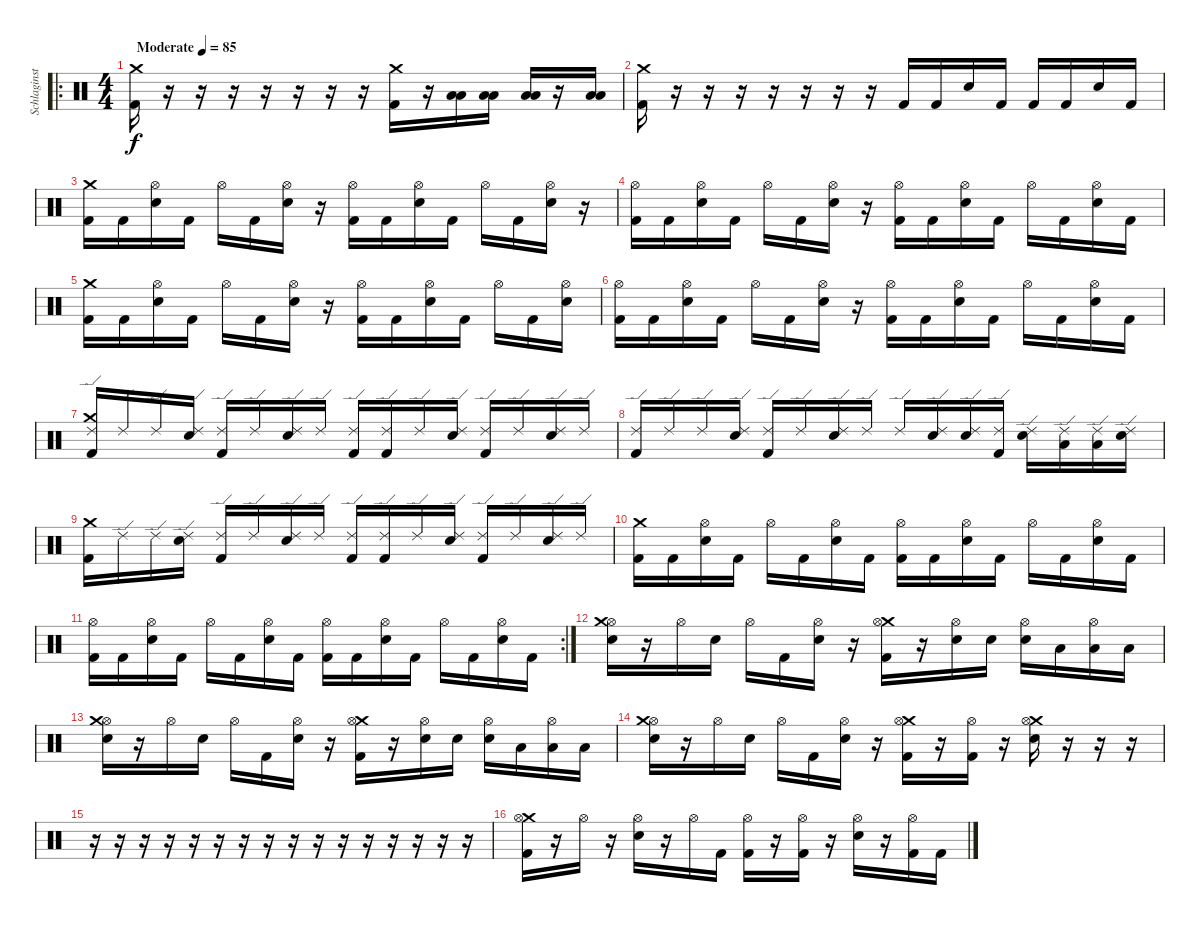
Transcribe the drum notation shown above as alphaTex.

\track ("Schlaginstrumente - Auswahl" "Schlaginst") {instrument percussion}
\staff {score}
\articulation defaults
\ro
\ts (4 4)
\tempo (85 "Moderate")
\clef neutral
\ks c
("Kick (hit) 2" "Crash medium (hit)").16{dy f} r.16 r.16 r.16 r.16 r.16 r.16 r.16 ("Kick (hit) 2" "Crash medium (hit)").16 r.16 ("Low Floor Tom (hit)" "Low Tom (hit)").16 ("Low Floor Tom (hit)" "Low Tom (hit)").16 ("Low Floor Tom (hit)" "Low Tom (hit)").16 r.16 ("Low Floor Tom (hit)" "Low Tom (hit)").16 |
("Kick (hit) 2" "Crash medium (hit)").16 r.16 r.16 r.16 r.16 r.16 r.16 r.16 "Kick (hit) 2".16 "Kick (hit) 2".16 "Snare (hit) 2".16 "Kick (hit) 2".16 "Kick (hit) 2".16 "Kick (hit) 2".16 "Snare (hit) 2".16 "Kick (hit) 2".16 |
("Kick (hit) 2" "Crash medium (hit)").16 "Kick (hit) 2".16 ("Snare (hit) 2" "Hi-Hat (open)").16 "Kick (hit) 2".16 "Hi-Hat (open)".16 "Kick (hit) 2".16 ("Snare (hit) 2" "Hi-Hat (open)").16 r.16 ("Kick (hit) 2" "Hi-Hat (open)").16 "Kick (hit) 2".16 ("Snare (hit) 2" "Hi-Hat (open)").16 "Kick (hit) 2".16 "Hi-Hat (open)".16 "Kick (hit) 2".16 ("Snare (hit) 2" "Hi-Hat (open)").16 r.16 |
("Kick (hit) 2" "Hi-Hat (open)").16 "Kick (hit) 2".16 ("Snare (hit) 2" "Hi-Hat (open)").16 "Kick (hit) 2".16 "Hi-Hat (open)".16 "Kick (hit) 2".16 ("Snare (hit) 2" "Hi-Hat (open)").16 r.16 ("Kick (hit) 2" "Hi-Hat (open)").16 "Kick (hit) 2".16 ("Snare (hit) 2" "Hi-Hat (open)").16 "Kick (hit) 2".16 "Hi-Hat (open)".16 "Kick (hit) 2".16 ("Snare (hit) 2" "Hi-Hat (open)").16 "Kick (hit) 2".16 |
("Kick (hit) 2" "Crash medium (hit)").16 "Kick (hit) 2".16 ("Snare (hit) 2" "Hi-Hat (open)").16 "Kick (hit) 2".16 "Hi-Hat (open)".16 "Kick (hit) 2".16 ("Snare (hit) 2" "Hi-Hat (open)").16 r.16 ("Kick (hit) 2" "Hi-Hat (open)").16 "Kick (hit) 2".16 ("Snare (hit) 2" "Hi-Hat (open)").16 "Kick (hit) 2".16 "Hi-Hat (open)".16 "Kick (hit) 2".16 ("Snare (hit) 2" "Hi-Hat (open)").16 |
("Kick (hit) 2" "Hi-Hat (open)").16 "Kick (hit) 2".16 ("Snare (hit) 2" "Hi-Hat (open)").16 "Kick (hit) 2".16 "Hi-Hat (open)".16 "Kick (hit) 2".16 ("Snare (hit) 2" "Hi-Hat (open)").16 r.16 ("Kick (hit) 2" "Hi-Hat (open)").16 "Kick (hit) 2".16 ("Snare (hit) 2" "Hi-Hat (open)").16 "Kick (hit) 2".16 "Hi-Hat (open)".16 "Kick (hit) 2".16 ("Snare (hit) 2" "Hi-Hat (open)").16 "Kick (hit) 2".16 |
("Kick (hit) 2" "Ride (edge) 2" "Crash medium (hit)").16 "Ride (edge) 2".16 "Ride (edge) 2".16 ("Snare (hit) 2" "Ride (edge) 2").16 ("Kick (hit) 2" "Ride (edge) 2").16 "Ride (edge) 2".16 ("Snare (hit) 2" "Ride (edge) 2").16 "Ride (edge) 2".16 ("Kick (hit) 2" "Ride (edge) 2").16 ("Kick (hit) 2" "Ride (edge) 2").16 "Ride (edge) 2".16 ("Snare (hit) 2" "Ride (edge) 2").16 ("Kick (hit) 2" "Ride (edge) 2").16 "Ride (edge) 2".16 ("Snare (hit) 2" "Ride (edge) 2").16 "Ride (edge) 2".16 |
("Kick (hit) 2" "Ride (edge) 2").16 "Ride (edge) 2".16 "Ride (edge) 2".16 ("Snare (hit) 2" "Ride (edge) 2").16 ("Kick (hit) 2" "Ride (edge) 2").16 "Ride (edge) 2".16 ("Snare (hit) 2" "Ride (edge) 2").16 "Ride (edge) 2".16 "Ride (edge) 2".16 ("Snare (hit) 2" "Ride (edge) 2").16 ("Snare (hit) 2" "Ride (edge) 2").16 ("Kick (hit) 2" "Ride (edge) 2").16 ("Snare (hit) 2" "Ride (edge) 2").16 ("Low Tom (hit)" "Ride (edge) 2").16 ("Low Tom (hit)" "Ride (edge) 2").16 ("Snare (hit) 2" "Ride (edge) 2").16 |
("Kick (hit) 2" "Crash medium (hit)").16 "Ride (edge) 2".16 "Ride (edge) 2".16 ("Snare (hit) 2" "Ride (edge) 2").16 ("Kick (hit) 2" "Ride (edge) 2").16 "Ride (edge) 2".16 ("Snare (hit) 2" "Ride (edge) 2").16 "Ride (edge) 2".16 ("Kick (hit) 2" "Ride (edge) 2").16 ("Kick (hit) 2" "Ride (edge) 2").16 "Ride (edge) 2".16 ("Snare (hit) 2" "Ride (edge) 2").16 ("Kick (hit) 2" "Ride (edge) 2").16 "Ride (edge) 2".16 ("Snare (hit) 2" "Ride (edge) 2").16 "Ride (edge) 2".16 |
("Kick (hit) 2" "Crash medium (hit)").16 "Kick (hit) 2".16 ("Snare (hit) 2" "Hi-Hat (open)").16 "Kick (hit) 2".16 "Hi-Hat (open)".16 "Kick (hit) 2".16 ("Snare (hit) 2" "Hi-Hat (open)").16 "Kick (hit) 2".16 ("Kick (hit) 2" "Hi-Hat (open)").16 "Kick (hit) 2".16 ("Snare (hit) 2" "Hi-Hat (open)").16 "Kick (hit) 2".16 "Hi-Hat (open)".16 "Kick (hit) 2".16 ("Snare (hit) 2" "Hi-Hat (open)").16 "Kick (hit) 2".16 |
\rc 2
("Kick (hit) 2" "Hi-Hat (open)").16 "Kick (hit) 2".16 ("Snare (hit) 2" "Hi-Hat (open)").16 "Kick (hit) 2".16 "Hi-Hat (open)".16 "Kick (hit) 2".16 ("Snare (hit) 2" "Hi-Hat (open)").16 "Kick (hit) 2".16 ("Kick (hit) 2" "Hi-Hat (open)").16 "Kick (hit) 2".16 ("Snare (hit) 2" "Hi-Hat (open)").16 "Kick (hit) 2".16 "Hi-Hat (open)".16 "Kick (hit) 2".16 ("Snare (hit) 2" "Hi-Hat (open)").16 "Kick (hit) 2".16 |
("Snare (hit) 2" "Hi-Hat (open)" "Crash medium (hit)").16 r.16 "Hi-Hat (open)".16 "Snare (hit) 2".16 "Hi-Hat (open)".16 "Kick (hit) 2".16 ("Snare (hit) 2" "Hi-Hat (open)").16 r.16 ("Kick (hit) 2" "Crash medium (hit)" "Hi-Hat (open)").16 r.16 ("Snare (hit) 2" "Hi-Hat (open)").16 "Snare (hit) 2".16 ("Snare (hit) 2" "Hi-Hat (open)").16 "Low Tom (hit)".16 ("Low Tom (hit)" "Hi-Hat (open)").16 "Low Tom (hit)".16 |
("Snare (hit) 2" "Hi-Hat (open)" "Crash medium (hit)").16 r.16 "Hi-Hat (open)".16 "Snare (hit) 2".16 "Hi-Hat (open)".16 "Kick (hit) 2".16 ("Snare (hit) 2" "Hi-Hat (open)").16 r.16 ("Kick (hit) 2" "Crash medium (hit)" "Hi-Hat (open)").16 r.16 ("Snare (hit) 2" "Hi-Hat (open)").16 "Snare (hit) 2".16 ("Snare (hit) 2" "Hi-Hat (open)").16 "Low Tom (hit)".16 ("Low Tom (hit)" "Hi-Hat (open)").16 "Low Tom (hit)".16 |
("Snare (hit) 2" "Hi-Hat (open)" "Crash medium (hit)").16 r.16 "Hi-Hat (open)".16 "Snare (hit) 2".16 "Hi-Hat (open)".16 "Kick (hit) 2".16 ("Snare (hit) 2" "Hi-Hat (open)").16 r.16 ("Kick (hit) 2" "Crash medium (hit)" "Hi-Hat (open)").16 r.16 ("Kick (hit) 2" "Hi-Hat (open)").16 r.16 ("Snare (hit) 2" "Crash medium (hit)" "Hi-Hat (open)").16 r.16 r.16 r.16 |
r.16 r.16 r.16 r.16 r.16 r.16 r.16 r.16 r.16 r.16 r.16 r.16 r.16 r.16 r.16 r.16 |
("Kick (hit) 2" "Crash medium (hit)" "Hi-Hat (open)").16 r.16 "Hi-Hat (open)".16 r.16 ("Snare (hit) 2" "Hi-Hat (open)").16 r.16 "Hi-Hat (open)".16 "Kick (hit) 2".16 ("Kick (hit) 2" "Hi-Hat (open)").16 r.16 ("Kick (hit) 2" "Hi-Hat (open)").16 r.16 ("Snare (hit) 2" "Hi-Hat (open)").16 r.16 ("Kick (hit) 2" "Hi-Hat (open)").16 "Kick (hit) 2".16
